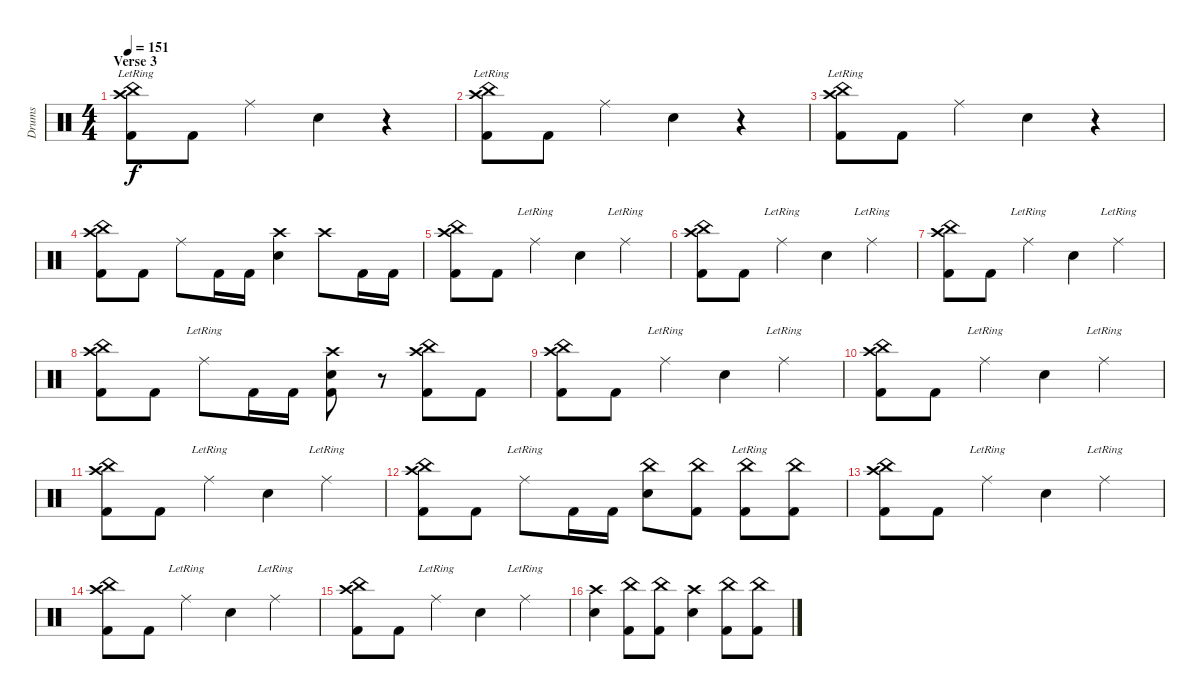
\track ("Drums" "Drums") {instrument percussion}
\staff {score}
\articulation defaults
\ts (4 4)
\section ("" "Verse 3")
\tempo 151
\clef neutral
\ks c
("Crash high (hit)"{lr} "China (hit)" "Kick (hit) 2").8{dy f} "Kick (hit) 2".8 "Ride (middle)".4 "Electric Snare (hit)".4 r.4 |
("Crash high (hit)"{lr} "China (hit)" "Kick (hit) 2").8 "Kick (hit) 2".8 "Ride (middle)".4 "Electric Snare (hit)".4 r.4 |
("Crash high (hit)"{lr} "China (hit)" "Kick (hit) 2").8 "Kick (hit) 2".8 "Ride (middle)".4 "Electric Snare (hit)".4 r.4 |
("Crash high (hit)" "China (hit)" "Kick (hit) 2").8 "Kick (hit) 2".8 "Ride (middle)".8 "Kick (hit) 2".16 "Kick (hit) 2".16 ("Crash high (hit)" "Electric Snare (hit)").4 "Crash high (hit)".8 "Kick (hit) 2".16 "Kick (hit) 2".16 |
("Crash high (hit)" "China (hit)" "Kick (hit) 2").8 "Kick (hit) 2".8 "Ride (middle)"{lr}.4 "Electric Snare (hit)".4 "Ride (middle)"{lr}.4 |
("Crash high (hit)" "China (hit)" "Kick (hit) 2").8 "Kick (hit) 2".8 "Ride (middle)"{lr}.4 "Electric Snare (hit)".4 "Ride (middle)"{lr}.4 |
("Crash high (hit)" "China (hit)" "Kick (hit) 2").8 "Kick (hit) 2".8 "Ride (middle)"{lr}.4 "Electric Snare (hit)".4 "Ride (middle)"{lr}.4 |
("Crash high (hit)" "China (hit)" "Kick (hit) 2").8 "Kick (hit) 2".8 "Ride (middle)"{lr}.8 "Kick (hit) 2".16 "Kick (hit) 2".16 ("Crash high (hit)" "Electric Snare (hit)" "Kick (hit) 2").8 r.8 ("Crash high (hit)" "China (hit)" "Kick (hit) 2").8 "Kick (hit) 2".8 |
("Crash high (hit)" "China (hit)" "Kick (hit) 2").8 "Kick (hit) 2".8 "Ride (middle)"{lr}.4 "Electric Snare (hit)".4 "Ride (middle)"{lr}.4 |
("Crash high (hit)" "China (hit)" "Kick (hit) 2").8 "Kick (hit) 2".8 "Ride (middle)"{lr}.4 "Electric Snare (hit)".4 "Ride (middle)"{lr}.4 |
("Crash high (hit)" "China (hit)" "Kick (hit) 2").8 "Kick (hit) 2".8 "Ride (middle)"{lr}.4 "Electric Snare (hit)".4 "Ride (middle)"{lr}.4 |
("Crash high (hit)" "China (hit)" "Kick (hit) 2").8 "Kick (hit) 2".8 "Ride (middle)"{lr}.8 "Kick (hit) 2".16 "Kick (hit) 2".16 ("China (hit)" "Electric Snare (hit)").8 ("China (hit)" "Kick (hit) 2").8 ("China (hit)"{lr} "Kick (hit) 2").8 ("China (hit)" "Kick (hit) 2").8 |
("Crash high (hit)" "China (hit)" "Kick (hit) 2").8 "Kick (hit) 2".8 "Ride (middle)"{lr}.4 "Electric Snare (hit)".4 "Ride (middle)"{lr}.4 |
("Crash high (hit)" "China (hit)" "Kick (hit) 2").8 "Kick (hit) 2".8 "Ride (middle)"{lr}.4 "Electric Snare (hit)".4 "Ride (middle)"{lr}.4 |
("Crash high (hit)" "China (hit)" "Kick (hit) 2").8 "Kick (hit) 2".8 "Ride (middle)"{lr}.4 "Electric Snare (hit)".4 "Ride (middle)"{lr}.4 |
("Crash high (hit)" "Electric Snare (hit)").4 ("China (hit)" "Kick (hit) 2").8 ("China (hit)" "Kick (hit) 2").8 ("Crash high (hit)" "Electric Snare (hit)").4 ("China (hit)" "Kick (hit) 2").8 ("China (hit)" "Kick (hit) 2").8
